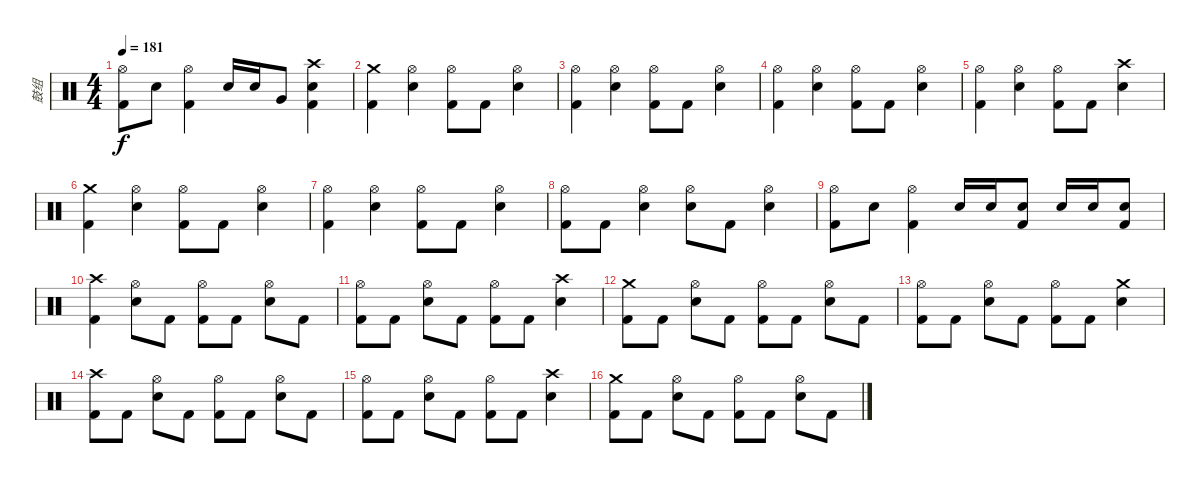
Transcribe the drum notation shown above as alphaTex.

\track ("鼓组" "鼓组") {instrument percussion}
\staff {score}
\articulation defaults
\ts (4 4)
\tempo 181
\clef neutral
\ks c
("Hi-Hat (open)" "Kick (hit) 2").8{dy f} "Snare (hit) 2".8 ("Hi-Hat (open)" "Kick (hit) 2").4 "Snare (hit) 2".16 "Snare (hit) 2".16 "Very Low Tom (hit)".8 ("Crash high (hit)" "Kick (hit) 2" "Snare (hit) 2").4 |
("Crash medium (hit)" "Kick (hit) 2").4 ("Hi-Hat (open)" "Snare (hit) 2").4 ("Hi-Hat (open)" "Kick (hit) 2").8 "Kick (hit) 2".8 ("Hi-Hat (open)" "Snare (hit) 2").4 |
("Hi-Hat (open)" "Kick (hit) 2").4 ("Hi-Hat (open)" "Snare (hit) 2").4 ("Hi-Hat (open)" "Kick (hit) 2").8 "Kick (hit) 2".8 ("Hi-Hat (open)" "Snare (hit) 2").4 |
("Hi-Hat (open)" "Kick (hit) 2").4 ("Hi-Hat (open)" "Snare (hit) 2").4 ("Hi-Hat (open)" "Kick (hit) 2").8 "Kick (hit) 2".8 ("Hi-Hat (open)" "Snare (hit) 2").4 |
("Hi-Hat (open)" "Kick (hit) 2").4 ("Hi-Hat (open)" "Snare (hit) 2").4 ("Hi-Hat (open)" "Kick (hit) 2").8 "Kick (hit) 2".8 ("Crash high (hit)" "Snare (hit) 2").4 |
("Crash medium (hit)" "Kick (hit) 2").4 ("Hi-Hat (open)" "Snare (hit) 2").4 ("Hi-Hat (open)" "Kick (hit) 2").8 "Kick (hit) 2".8 ("Hi-Hat (open)" "Snare (hit) 2").4 |
("Hi-Hat (open)" "Kick (hit) 2").4 ("Hi-Hat (open)" "Snare (hit) 2").4 ("Hi-Hat (open)" "Kick (hit) 2").8 "Kick (hit) 2".8 ("Hi-Hat (open)" "Snare (hit) 2").4 |
("Hi-Hat (open)" "Kick (hit) 2").8 "Kick (hit) 2".8 ("Hi-Hat (open)" "Snare (hit) 2").4 ("Hi-Hat (open)" "Snare (hit) 2").8 "Kick (hit) 2".8 ("Hi-Hat (open)" "Snare (hit) 2").4 |
("Hi-Hat (open)" "Kick (hit) 2").8 "Snare (hit) 2".8 ("Hi-Hat (open)" "Kick (hit) 2").4 "Snare (hit) 2".16 "Snare (hit) 2".16 ("Snare (hit) 2" "Kick (hit) 2").8 "Snare (hit) 2".16 "Snare (hit) 2".16 ("Snare (hit) 2" "Kick (hit) 2").8 |
("Crash high (hit)" "Kick (hit) 2").4 ("Hi-Hat (open)" "Snare (hit) 2").8 "Kick (hit) 2".8 ("Hi-Hat (open)" "Kick (hit) 2").8 "Kick (hit) 2".8 ("Hi-Hat (open)" "Snare (hit) 2").8 "Kick (hit) 2".8 |
("Hi-Hat (open)" "Kick (hit) 2").8 "Kick (hit) 2".8 ("Hi-Hat (open)" "Snare (hit) 2").8 "Kick (hit) 2".8 ("Hi-Hat (open)" "Kick (hit) 2").8 "Kick (hit) 2".8 ("Crash high (hit)" "Snare (hit) 2").4 |
("Crash medium (hit)" "Kick (hit) 2").8 "Kick (hit) 2".8 ("Hi-Hat (open)" "Snare (hit) 2").8 "Kick (hit) 2".8 ("Hi-Hat (open)" "Kick (hit) 2").8 "Kick (hit) 2".8 ("Hi-Hat (open)" "Snare (hit) 2").8 "Kick (hit) 2".8 |
("Hi-Hat (open)" "Kick (hit) 2").8 "Kick (hit) 2".8 ("Hi-Hat (open)" "Snare (hit) 2").8 "Kick (hit) 2".8 ("Hi-Hat (open)" "Kick (hit) 2").8 "Kick (hit) 2".8 ("Crash medium (hit)" "Snare (hit) 2").4 |
("Crash high (hit)" "Kick (hit) 2").8 "Kick (hit) 2".8 ("Hi-Hat (open)" "Snare (hit) 2").8 "Kick (hit) 2".8 ("Hi-Hat (open)" "Kick (hit) 2").8 "Kick (hit) 2".8 ("Hi-Hat (open)" "Snare (hit) 2").8 "Kick (hit) 2".8 |
("Hi-Hat (open)" "Kick (hit) 2").8 "Kick (hit) 2".8 ("Hi-Hat (open)" "Snare (hit) 2").8 "Kick (hit) 2".8 ("Hi-Hat (open)" "Kick (hit) 2").8 "Kick (hit) 2".8 ("Crash high (hit)" "Snare (hit) 2").4 |
("Crash medium (hit)" "Kick (hit) 2").8 "Kick (hit) 2".8 ("Hi-Hat (open)" "Snare (hit) 2").8 "Kick (hit) 2".8 ("Hi-Hat (open)" "Kick (hit) 2").8 "Kick (hit) 2".8 ("Hi-Hat (open)" "Snare (hit) 2").8 "Kick (hit) 2".8
